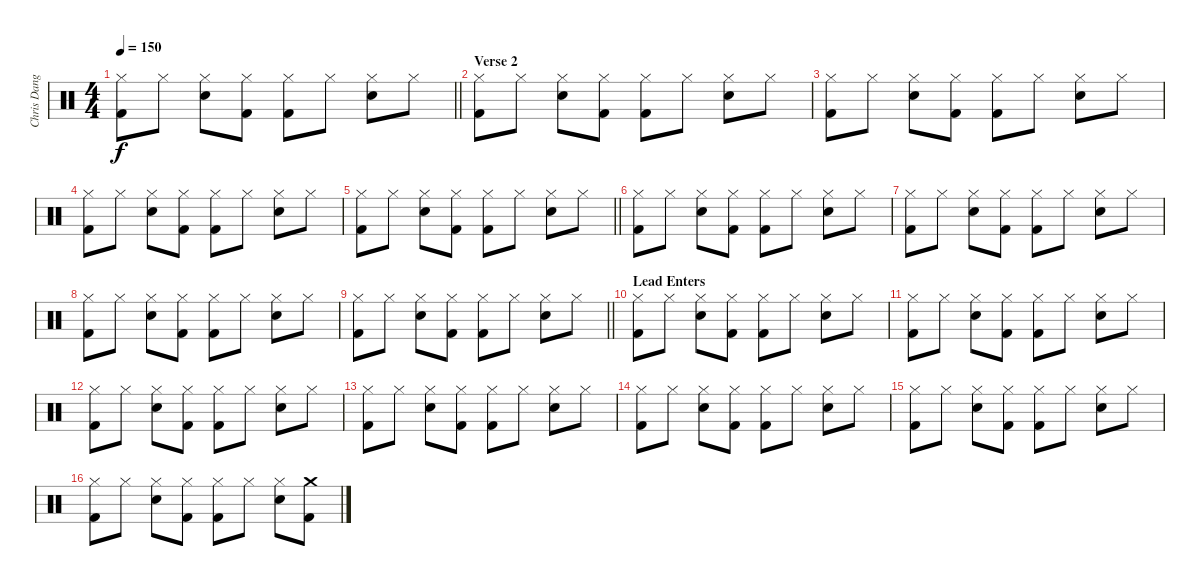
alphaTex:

\track ("Chris Dangerous" "Chris Dang") {instrument percussion}
\staff {score}
\articulation defaults
\ts (4 4)
\tempo 150
\clef neutral
\barLineRight lightlight
\ks c
("Hi-Hat (closed)" "Kick (hit) 2").8{dy f} "Hi-Hat (closed)".8 ("Hi-Hat (closed)" "Snare (hit) 2").8 ("Hi-Hat (closed)" "Kick (hit) 2").8 ("Hi-Hat (closed)" "Kick (hit) 2").8 "Hi-Hat (closed)".8 ("Hi-Hat (closed)" "Snare (hit) 2").8 "Hi-Hat (closed)".8 |
\section ("" "Verse 2")
("Hi-Hat (closed)" "Kick (hit) 2").8 "Hi-Hat (closed)".8 ("Hi-Hat (closed)" "Snare (hit) 2").8 ("Hi-Hat (closed)" "Kick (hit) 2").8 ("Hi-Hat (closed)" "Kick (hit) 2").8 "Hi-Hat (closed)".8 ("Hi-Hat (closed)" "Snare (hit) 2").8 "Hi-Hat (closed)".8 |
("Hi-Hat (closed)" "Kick (hit) 2").8 "Hi-Hat (closed)".8 ("Hi-Hat (closed)" "Snare (hit) 2").8 ("Hi-Hat (closed)" "Kick (hit) 2").8 ("Hi-Hat (closed)" "Kick (hit) 2").8 "Hi-Hat (closed)".8 ("Hi-Hat (closed)" "Snare (hit) 2").8 "Hi-Hat (closed)".8 |
("Hi-Hat (closed)" "Kick (hit) 2").8 "Hi-Hat (closed)".8 ("Hi-Hat (closed)" "Snare (hit) 2").8 ("Hi-Hat (closed)" "Kick (hit) 2").8 ("Hi-Hat (closed)" "Kick (hit) 2").8 "Hi-Hat (closed)".8 ("Hi-Hat (closed)" "Snare (hit) 2").8 "Hi-Hat (closed)".8 |
\barLineRight lightlight
("Hi-Hat (closed)" "Kick (hit) 2").8 "Hi-Hat (closed)".8 ("Hi-Hat (closed)" "Snare (hit) 2").8 ("Hi-Hat (closed)" "Kick (hit) 2").8 ("Hi-Hat (closed)" "Kick (hit) 2").8 "Hi-Hat (closed)".8 ("Hi-Hat (closed)" "Snare (hit) 2").8 "Hi-Hat (closed)".8 |
("Hi-Hat (closed)" "Kick (hit) 2").8 "Hi-Hat (closed)".8 ("Hi-Hat (closed)" "Snare (hit) 2").8 ("Hi-Hat (closed)" "Kick (hit) 2").8 ("Hi-Hat (closed)" "Kick (hit) 2").8 "Hi-Hat (closed)".8 ("Hi-Hat (closed)" "Snare (hit) 2").8 "Hi-Hat (closed)".8 |
("Hi-Hat (closed)" "Kick (hit) 2").8 "Hi-Hat (closed)".8 ("Hi-Hat (closed)" "Snare (hit) 2").8 ("Hi-Hat (closed)" "Kick (hit) 2").8 ("Hi-Hat (closed)" "Kick (hit) 2").8 "Hi-Hat (closed)".8 ("Hi-Hat (closed)" "Snare (hit) 2").8 "Hi-Hat (closed)".8 |
("Hi-Hat (closed)" "Kick (hit) 2").8 "Hi-Hat (closed)".8 ("Hi-Hat (closed)" "Snare (hit) 2").8 ("Hi-Hat (closed)" "Kick (hit) 2").8 ("Hi-Hat (closed)" "Kick (hit) 2").8 "Hi-Hat (closed)".8 ("Hi-Hat (closed)" "Snare (hit) 2").8 "Hi-Hat (closed)".8 |
\barLineRight lightlight
("Hi-Hat (closed)" "Kick (hit) 2").8 "Hi-Hat (closed)".8 ("Hi-Hat (closed)" "Snare (hit) 2").8 ("Hi-Hat (closed)" "Kick (hit) 2").8 ("Hi-Hat (closed)" "Kick (hit) 2").8 "Hi-Hat (closed)".8 ("Hi-Hat (closed)" "Snare (hit) 2").8 "Hi-Hat (closed)".8 |
\section ("" "Lead Enters")
("Hi-Hat (closed)" "Kick (hit) 2").8 "Hi-Hat (closed)".8 ("Hi-Hat (closed)" "Snare (hit) 2").8 ("Hi-Hat (closed)" "Kick (hit) 2").8 ("Hi-Hat (closed)" "Kick (hit) 2").8 "Hi-Hat (closed)".8 ("Hi-Hat (closed)" "Snare (hit) 2").8 "Hi-Hat (closed)".8 |
("Hi-Hat (closed)" "Kick (hit) 2").8 "Hi-Hat (closed)".8 ("Hi-Hat (closed)" "Snare (hit) 2").8 ("Hi-Hat (closed)" "Kick (hit) 2").8 ("Hi-Hat (closed)" "Kick (hit) 2").8 "Hi-Hat (closed)".8 ("Hi-Hat (closed)" "Snare (hit) 2").8 "Hi-Hat (closed)".8 |
("Hi-Hat (closed)" "Kick (hit) 2").8 "Hi-Hat (closed)".8 ("Hi-Hat (closed)" "Snare (hit) 2").8 ("Hi-Hat (closed)" "Kick (hit) 2").8 ("Hi-Hat (closed)" "Kick (hit) 2").8 "Hi-Hat (closed)".8 ("Hi-Hat (closed)" "Snare (hit) 2").8 "Hi-Hat (closed)".8 |
("Hi-Hat (closed)" "Kick (hit) 2").8 "Hi-Hat (closed)".8 ("Hi-Hat (closed)" "Snare (hit) 2").8 ("Hi-Hat (closed)" "Kick (hit) 2").8 ("Hi-Hat (closed)" "Kick (hit) 2").8 "Hi-Hat (closed)".8 ("Hi-Hat (closed)" "Snare (hit) 2").8 "Hi-Hat (closed)".8 |
("Hi-Hat (closed)" "Kick (hit) 2").8 "Hi-Hat (closed)".8 ("Hi-Hat (closed)" "Snare (hit) 2").8 ("Hi-Hat (closed)" "Kick (hit) 2").8 ("Hi-Hat (closed)" "Kick (hit) 2").8 "Hi-Hat (closed)".8 ("Hi-Hat (closed)" "Snare (hit) 2").8 "Hi-Hat (closed)".8 |
("Hi-Hat (closed)" "Kick (hit) 2").8 "Hi-Hat (closed)".8 ("Hi-Hat (closed)" "Snare (hit) 2").8 ("Hi-Hat (closed)" "Kick (hit) 2").8 ("Hi-Hat (closed)" "Kick (hit) 2").8 "Hi-Hat (closed)".8 ("Hi-Hat (closed)" "Snare (hit) 2").8 "Hi-Hat (closed)".8 |
("Hi-Hat (closed)" "Kick (hit) 2").8 "Hi-Hat (closed)".8 ("Hi-Hat (closed)" "Snare (hit) 2").8 ("Hi-Hat (closed)" "Kick (hit) 2").8 ("Hi-Hat (closed)" "Kick (hit) 2").8 "Hi-Hat (closed)".8 ("Hi-Hat (closed)" "Snare (hit) 2").8 ("Crash medium (hit)" "Kick (hit) 2").8
